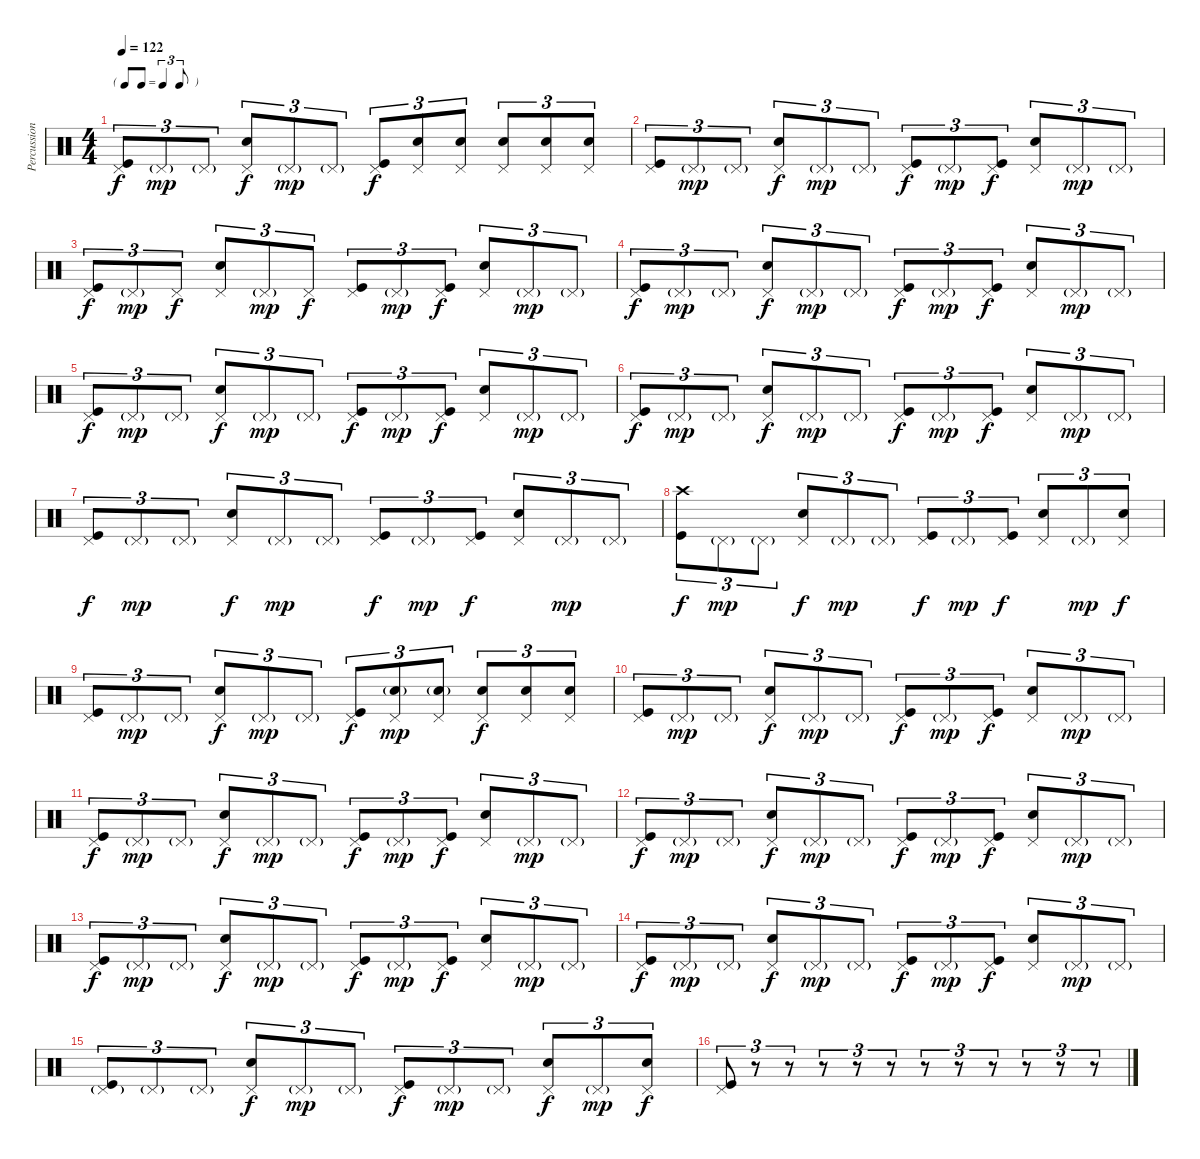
\track ("Percussion" "Percussion") {instrument percussion}
\staff {score}
\articulation defaults
\ts (4 4)
\tf triplet8th
\tempo 122
\clef neutral
\ks c
("Pedal Hi-Hat (hit)" "Kick (hit)").8{tu (3 2) dy f} "Pedal Hi-Hat (hit)"{g}.8{tu (3 2) dy mp} "Pedal Hi-Hat (hit)"{g}.8{tu (3 2)} ("Pedal Hi-Hat (hit)" "Snare (hit) 2").8{tu (3 2) dy f} "Pedal Hi-Hat (hit)"{g}.8{tu (3 2) dy mp} "Pedal Hi-Hat (hit)"{g}.8{tu (3 2)} ("Pedal Hi-Hat (hit)" "Kick (hit)").8{tu (3 2) dy f} ("Pedal Hi-Hat (hit)" "Snare (hit) 2").8{tu (3 2)} ("Pedal Hi-Hat (hit)" "Snare (hit) 2").8{tu (3 2)} ("Pedal Hi-Hat (hit)" "Snare (hit) 2").8{tu (3 2)} ("Pedal Hi-Hat (hit)" "Snare (hit) 2").8{tu (3 2)} ("Pedal Hi-Hat (hit)" "Snare (hit) 2").8{tu (3 2)} |
("Pedal Hi-Hat (hit)" "Kick (hit)").8{tu (3 2)} "Pedal Hi-Hat (hit)"{g}.8{tu (3 2) dy mp} "Pedal Hi-Hat (hit)"{g}.8{tu (3 2)} ("Pedal Hi-Hat (hit)" "Snare (hit) 2").8{tu (3 2) dy f} "Pedal Hi-Hat (hit)"{g}.8{tu (3 2) dy mp} "Pedal Hi-Hat (hit)"{g}.8{tu (3 2)} ("Pedal Hi-Hat (hit)" "Kick (hit)").8{tu (3 2) dy f} "Pedal Hi-Hat (hit)"{g}.8{tu (3 2) dy mp} ("Pedal Hi-Hat (hit)" "Kick (hit)").8{tu (3 2) dy f} ("Pedal Hi-Hat (hit)" "Snare (hit) 2").8{tu (3 2)} "Pedal Hi-Hat (hit)"{g}.8{tu (3 2) dy mp} "Pedal Hi-Hat (hit)"{g}.8{tu (3 2)} |
("Pedal Hi-Hat (hit)" "Kick (hit)").8{tu (3 2) dy f} "Pedal Hi-Hat (hit)"{g}.8{tu (3 2) dy mp} "Pedal Hi-Hat (hit)".8{tu (3 2) dy f} ("Pedal Hi-Hat (hit)" "Snare (hit) 2").8{tu (3 2)} "Pedal Hi-Hat (hit)"{g}.8{tu (3 2) dy mp} "Pedal Hi-Hat (hit)".8{tu (3 2) dy f} ("Pedal Hi-Hat (hit)" "Kick (hit)").8{tu (3 2)} "Pedal Hi-Hat (hit)"{g}.8{tu (3 2) dy mp} ("Pedal Hi-Hat (hit)" "Kick (hit)").8{tu (3 2) dy f} ("Pedal Hi-Hat (hit)" "Snare (hit) 2").8{tu (3 2)} "Pedal Hi-Hat (hit)"{g}.8{tu (3 2) dy mp} "Pedal Hi-Hat (hit)"{g}.8{tu (3 2)} |
("Pedal Hi-Hat (hit)" "Kick (hit)").8{tu (3 2) dy f} "Pedal Hi-Hat (hit)"{g}.8{tu (3 2) dy mp} "Pedal Hi-Hat (hit)"{g}.8{tu (3 2)} ("Pedal Hi-Hat (hit)" "Snare (hit) 2").8{tu (3 2) dy f} "Pedal Hi-Hat (hit)"{g}.8{tu (3 2) dy mp} "Pedal Hi-Hat (hit)"{g}.8{tu (3 2)} ("Pedal Hi-Hat (hit)" "Kick (hit)").8{tu (3 2) dy f} "Pedal Hi-Hat (hit)"{g}.8{tu (3 2) dy mp} ("Pedal Hi-Hat (hit)" "Kick (hit)").8{tu (3 2) dy f} ("Pedal Hi-Hat (hit)" "Snare (hit) 2").8{tu (3 2)} "Pedal Hi-Hat (hit)"{g}.8{tu (3 2) dy mp} "Pedal Hi-Hat (hit)"{g}.8{tu (3 2)} |
("Pedal Hi-Hat (hit)" "Kick (hit)").8{tu (3 2) dy f} "Pedal Hi-Hat (hit)"{g}.8{tu (3 2) dy mp} "Pedal Hi-Hat (hit)"{g}.8{tu (3 2)} ("Pedal Hi-Hat (hit)" "Snare (hit) 2").8{tu (3 2) dy f} "Pedal Hi-Hat (hit)"{g}.8{tu (3 2) dy mp} "Pedal Hi-Hat (hit)"{g}.8{tu (3 2)} ("Pedal Hi-Hat (hit)" "Kick (hit)").8{tu (3 2) dy f} "Pedal Hi-Hat (hit)"{g}.8{tu (3 2) dy mp} ("Pedal Hi-Hat (hit)" "Kick (hit)").8{tu (3 2) dy f} ("Pedal Hi-Hat (hit)" "Snare (hit) 2").8{tu (3 2)} "Pedal Hi-Hat (hit)"{g}.8{tu (3 2) dy mp} "Pedal Hi-Hat (hit)"{g}.8{tu (3 2)} |
("Pedal Hi-Hat (hit)" "Kick (hit)").8{tu (3 2) dy f} "Pedal Hi-Hat (hit)"{g}.8{tu (3 2) dy mp} "Pedal Hi-Hat (hit)"{g}.8{tu (3 2)} ("Pedal Hi-Hat (hit)" "Snare (hit) 2").8{tu (3 2) dy f} "Pedal Hi-Hat (hit)"{g}.8{tu (3 2) dy mp} "Pedal Hi-Hat (hit)"{g}.8{tu (3 2)} ("Pedal Hi-Hat (hit)" "Kick (hit)").8{tu (3 2) dy f} "Pedal Hi-Hat (hit)"{g}.8{tu (3 2) dy mp} ("Pedal Hi-Hat (hit)" "Kick (hit)").8{tu (3 2) dy f} ("Pedal Hi-Hat (hit)" "Snare (hit) 2").8{tu (3 2)} "Pedal Hi-Hat (hit)"{g}.8{tu (3 2) dy mp} "Pedal Hi-Hat (hit)"{g}.8{tu (3 2)} |
("Pedal Hi-Hat (hit)" "Kick (hit)").8{tu (3 2) dy f} "Pedal Hi-Hat (hit)"{g}.8{tu (3 2) dy mp} "Pedal Hi-Hat (hit)"{g}.8{tu (3 2)} ("Pedal Hi-Hat (hit)" "Snare (hit) 2").8{tu (3 2) dy f} "Pedal Hi-Hat (hit)"{g}.8{tu (3 2) dy mp} "Pedal Hi-Hat (hit)"{g}.8{tu (3 2)} ("Pedal Hi-Hat (hit)" "Kick (hit)").8{tu (3 2) dy f} "Pedal Hi-Hat (hit)"{g}.8{tu (3 2) dy mp} ("Pedal Hi-Hat (hit)" "Kick (hit)").8{tu (3 2) dy f} ("Pedal Hi-Hat (hit)" "Snare (hit) 2").8{tu (3 2)} "Pedal Hi-Hat (hit)"{g}.8{tu (3 2) dy mp} "Pedal Hi-Hat (hit)"{g}.8{tu (3 2)} |
("Crash high (hit)" "Kick (hit)").8{tu (3 2) dy f} "Pedal Hi-Hat (hit)"{g}.8{tu (3 2) dy mp} "Pedal Hi-Hat (hit)"{g}.8{tu (3 2)} ("Pedal Hi-Hat (hit)" "Snare (hit) 2").8{tu (3 2) dy f} "Pedal Hi-Hat (hit)"{g}.8{tu (3 2) dy mp} "Pedal Hi-Hat (hit)"{g}.8{tu (3 2)} ("Pedal Hi-Hat (hit)" "Kick (hit)").8{tu (3 2) dy f} "Pedal Hi-Hat (hit)"{g}.8{tu (3 2) dy mp} ("Pedal Hi-Hat (hit)" "Kick (hit)").8{tu (3 2) dy f} ("Pedal Hi-Hat (hit)" "Snare (hit) 2").8{tu (3 2)} "Pedal Hi-Hat (hit)"{g}.8{tu (3 2) dy mp} ("Pedal Hi-Hat (hit)" "Snare (hit) 2").8{tu (3 2) dy f} |
("Pedal Hi-Hat (hit)" "Kick (hit)").8{tu (3 2)} "Pedal Hi-Hat (hit)"{g}.8{tu (3 2) dy mp} "Pedal Hi-Hat (hit)"{g}.8{tu (3 2)} ("Pedal Hi-Hat (hit)" "Snare (hit) 2").8{tu (3 2) dy f} "Pedal Hi-Hat (hit)"{g}.8{tu (3 2) dy mp} "Pedal Hi-Hat (hit)"{g}.8{tu (3 2)} ("Pedal Hi-Hat (hit)" "Kick (hit)").8{tu (3 2) dy f} ("Pedal Hi-Hat (hit)" "Snare (hit) 2"{g}).8{tu (3 2) dy mp} ("Pedal Hi-Hat (hit)" "Snare (hit) 2"{g}).8{tu (3 2)} ("Pedal Hi-Hat (hit)" "Snare (hit) 2").8{tu (3 2) dy f} ("Pedal Hi-Hat (hit)" "Snare (hit) 2").8{tu (3 2)} ("Pedal Hi-Hat (hit)" "Snare (hit) 2").8{tu (3 2)} |
("Pedal Hi-Hat (hit)" "Kick (hit)").8{tu (3 2)} "Pedal Hi-Hat (hit)"{g}.8{tu (3 2) dy mp} "Pedal Hi-Hat (hit)"{g}.8{tu (3 2)} ("Pedal Hi-Hat (hit)" "Snare (hit) 2").8{tu (3 2) dy f} "Pedal Hi-Hat (hit)"{g}.8{tu (3 2) dy mp} "Pedal Hi-Hat (hit)"{g}.8{tu (3 2)} ("Pedal Hi-Hat (hit)" "Kick (hit)").8{tu (3 2) dy f} "Pedal Hi-Hat (hit)"{g}.8{tu (3 2) dy mp} ("Pedal Hi-Hat (hit)" "Kick (hit)").8{tu (3 2) dy f} ("Pedal Hi-Hat (hit)" "Snare (hit) 2").8{tu (3 2)} "Pedal Hi-Hat (hit)"{g}.8{tu (3 2) dy mp} "Pedal Hi-Hat (hit)"{g}.8{tu (3 2)} |
("Pedal Hi-Hat (hit)" "Kick (hit)").8{tu (3 2) dy f} "Pedal Hi-Hat (hit)"{g}.8{tu (3 2) dy mp} "Pedal Hi-Hat (hit)"{g}.8{tu (3 2)} ("Pedal Hi-Hat (hit)" "Snare (hit) 2").8{tu (3 2) dy f} "Pedal Hi-Hat (hit)"{g}.8{tu (3 2) dy mp} "Pedal Hi-Hat (hit)"{g}.8{tu (3 2)} ("Pedal Hi-Hat (hit)" "Kick (hit)").8{tu (3 2) dy f} "Pedal Hi-Hat (hit)"{g}.8{tu (3 2) dy mp} ("Pedal Hi-Hat (hit)" "Kick (hit)").8{tu (3 2) dy f} ("Pedal Hi-Hat (hit)" "Snare (hit) 2").8{tu (3 2)} "Pedal Hi-Hat (hit)"{g}.8{tu (3 2) dy mp} "Pedal Hi-Hat (hit)"{g}.8{tu (3 2)} |
("Pedal Hi-Hat (hit)" "Kick (hit)").8{tu (3 2) dy f} "Pedal Hi-Hat (hit)"{g}.8{tu (3 2) dy mp} "Pedal Hi-Hat (hit)"{g}.8{tu (3 2)} ("Pedal Hi-Hat (hit)" "Snare (hit) 2").8{tu (3 2) dy f} "Pedal Hi-Hat (hit)"{g}.8{tu (3 2) dy mp} "Pedal Hi-Hat (hit)"{g}.8{tu (3 2)} ("Pedal Hi-Hat (hit)" "Kick (hit)").8{tu (3 2) dy f} "Pedal Hi-Hat (hit)"{g}.8{tu (3 2) dy mp} ("Pedal Hi-Hat (hit)" "Kick (hit)").8{tu (3 2) dy f} ("Pedal Hi-Hat (hit)" "Snare (hit) 2").8{tu (3 2)} "Pedal Hi-Hat (hit)"{g}.8{tu (3 2) dy mp} "Pedal Hi-Hat (hit)"{g}.8{tu (3 2)} |
("Pedal Hi-Hat (hit)" "Kick (hit)").8{tu (3 2) dy f} "Pedal Hi-Hat (hit)"{g}.8{tu (3 2) dy mp} "Pedal Hi-Hat (hit)"{g}.8{tu (3 2)} ("Pedal Hi-Hat (hit)" "Snare (hit) 2").8{tu (3 2) dy f} "Pedal Hi-Hat (hit)"{g}.8{tu (3 2) dy mp} "Pedal Hi-Hat (hit)"{g}.8{tu (3 2)} ("Pedal Hi-Hat (hit)" "Kick (hit)").8{tu (3 2) dy f} "Pedal Hi-Hat (hit)"{g}.8{tu (3 2) dy mp} ("Pedal Hi-Hat (hit)" "Kick (hit)").8{tu (3 2) dy f} ("Pedal Hi-Hat (hit)" "Snare (hit) 2").8{tu (3 2)} "Pedal Hi-Hat (hit)"{g}.8{tu (3 2) dy mp} "Pedal Hi-Hat (hit)"{g}.8{tu (3 2)} |
("Pedal Hi-Hat (hit)" "Kick (hit)").8{tu (3 2) dy f} "Pedal Hi-Hat (hit)"{g}.8{tu (3 2) dy mp} "Pedal Hi-Hat (hit)"{g}.8{tu (3 2)} ("Pedal Hi-Hat (hit)" "Snare (hit) 2").8{tu (3 2) dy f} "Pedal Hi-Hat (hit)"{g}.8{tu (3 2) dy mp} "Pedal Hi-Hat (hit)"{g}.8{tu (3 2)} ("Pedal Hi-Hat (hit)" "Kick (hit)").8{tu (3 2) dy f} "Pedal Hi-Hat (hit)"{g}.8{tu (3 2) dy mp} ("Pedal Hi-Hat (hit)" "Kick (hit)").8{tu (3 2) dy f} ("Pedal Hi-Hat (hit)" "Snare (hit) 2").8{tu (3 2)} "Pedal Hi-Hat (hit)"{g}.8{tu (3 2) dy mp} "Pedal Hi-Hat (hit)"{g}.8{tu (3 2)} |
("Pedal Hi-Hat (hit)"{g} "Kick (hit)").8{tu (3 2)} "Pedal Hi-Hat (hit)"{g}.8{tu (3 2)} "Pedal Hi-Hat (hit)"{g}.8{tu (3 2)} ("Pedal Hi-Hat (hit)" "Snare (hit) 2").8{tu (3 2) dy f} "Pedal Hi-Hat (hit)"{g}.8{tu (3 2) dy mp} "Pedal Hi-Hat (hit)"{g}.8{tu (3 2)} ("Pedal Hi-Hat (hit)" "Kick (hit)").8{tu (3 2) dy f} "Pedal Hi-Hat (hit)"{g}.8{tu (3 2) dy mp} "Pedal Hi-Hat (hit)"{g}.8{tu (3 2)} ("Pedal Hi-Hat (hit)" "Snare (hit) 2").8{tu (3 2) dy f} "Pedal Hi-Hat (hit)"{g}.8{tu (3 2) dy mp} ("Pedal Hi-Hat (hit)" "Snare (hit) 2").8{tu (3 2) dy f} |
("Pedal Hi-Hat (hit)" "Kick (hit)").8{tu (3 2)} r.8{tu (3 2)} r.8{tu (3 2)} r.8{tu (3 2)} r.8{tu (3 2)} r.8{tu (3 2)} r.8{tu (3 2)} r.8{tu (3 2)} r.8{tu (3 2)} r.8{tu (3 2)} r.8{tu (3 2)} r.8{tu (3 2)}
